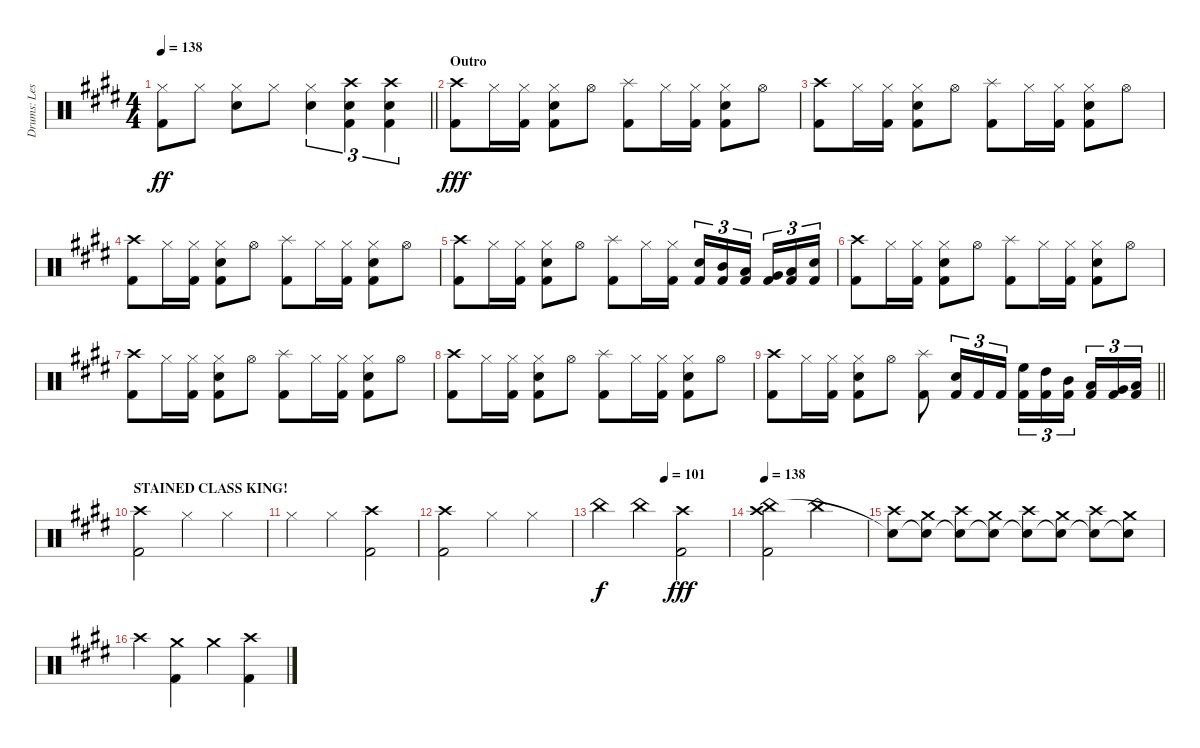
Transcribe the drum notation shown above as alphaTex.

\track ("Drums: Les" "Drums: Les") {instrument percussion}
\staff {score}
\articulation defaults
\ts (4 4)
\tempo 138
\clef neutral
\barLineRight lightlight
\ks e
("Hi-Hat (closed)" "Kick (hit) 2").8{dy ff} "Hi-Hat (closed)".8 ("Hi-Hat (closed)" "Snare (hit) 2").8 "Hi-Hat (closed)".8 ("Hi-Hat (closed)" "Snare (hit) 2").4{tu (3 2)} ("Crash high (hit)" "Snare (hit) 2" "Kick (hit) 2").4{tu (3 2)} ("Crash high (hit)" "Snare (hit) 2" "Kick (hit) 2").4{tu (3 2)} |
\section ("" "Outro")
("Crash high (hit)" "Kick (hit) 2").8{dy fff} "Hi-Hat (closed)".16 ("Hi-Hat (closed)" "Kick (hit) 2").16 ("Hi-Hat (closed)" "Snare (hit) 2" "Kick (hit) 2").8 "Hi-Hat (open)".8 ("Splash (hit)" "Kick (hit) 2").8 "Hi-Hat (closed)".16 ("Hi-Hat (closed)" "Kick (hit) 2").16 ("Hi-Hat (closed)" "Snare (hit) 2" "Kick (hit) 2").8 "Hi-Hat (open)".8 |
("Crash high (hit)" "Kick (hit) 2").8 "Hi-Hat (closed)".16 ("Hi-Hat (closed)" "Kick (hit) 2").16 ("Hi-Hat (closed)" "Snare (hit) 2" "Kick (hit) 2").8 "Hi-Hat (open)".8 ("Splash (hit)" "Kick (hit) 2").8 "Hi-Hat (closed)".16 ("Hi-Hat (closed)" "Kick (hit) 2").16 ("Hi-Hat (closed)" "Snare (hit) 2" "Kick (hit) 2").8 "Hi-Hat (open)".8 |
("Crash high (hit)" "Kick (hit) 2").8 "Hi-Hat (closed)".16 ("Hi-Hat (closed)" "Kick (hit) 2").16 ("Hi-Hat (closed)" "Snare (hit) 2" "Kick (hit) 2").8 "Hi-Hat (open)".8 ("Splash (hit)" "Kick (hit) 2").8 "Hi-Hat (closed)".16 ("Hi-Hat (closed)" "Kick (hit) 2").16 ("Hi-Hat (closed)" "Snare (hit) 2" "Kick (hit) 2").8 "Hi-Hat (open)".8 |
("Crash high (hit)" "Kick (hit) 2").8 "Hi-Hat (closed)".16 ("Hi-Hat (closed)" "Kick (hit) 2").16 ("Hi-Hat (closed)" "Snare (hit) 2" "Kick (hit) 2").8 "Hi-Hat (open)".8 ("Splash (hit)" "Kick (hit) 2").8 "Hi-Hat (closed)".16 ("Hi-Hat (closed)" "Kick (hit) 2").16 ("Snare (hit) 2" "Kick (hit) 2").16{tu (3 2)} ("Mid Tom (hit)" "Kick (hit) 2").16{tu (3 2)} ("Low Tom (hit)" "Kick (hit) 2").16{tu (3 2) beam splitsecondary} ("Very Low Tom (hit)" "Kick (hit) 2").16{tu (3 2)} ("Low Floor Tom (hit)" "Kick (hit) 2").16{tu (3 2)} ("Snare (hit) 2" "Kick (hit) 2").16{tu (3 2)} |
("Crash high (hit)" "Kick (hit) 2").8 "Hi-Hat (closed)".16 ("Hi-Hat (closed)" "Kick (hit) 2").16 ("Hi-Hat (closed)" "Snare (hit) 2" "Kick (hit) 2").8 "Hi-Hat (open)".8 ("Splash (hit)" "Kick (hit) 2").8 "Hi-Hat (closed)".16 ("Hi-Hat (closed)" "Kick (hit) 2").16 ("Hi-Hat (closed)" "Snare (hit) 2" "Kick (hit) 2").8 "Hi-Hat (open)".8 |
("Crash high (hit)" "Kick (hit) 2").8 "Hi-Hat (closed)".16 ("Hi-Hat (closed)" "Kick (hit) 2").16 ("Hi-Hat (closed)" "Snare (hit) 2" "Kick (hit) 2").8 "Hi-Hat (open)".8 ("Splash (hit)" "Kick (hit) 2").8 "Hi-Hat (closed)".16 ("Hi-Hat (closed)" "Kick (hit) 2").16 ("Hi-Hat (closed)" "Snare (hit) 2" "Kick (hit) 2").8 "Hi-Hat (open)".8 |
("Crash high (hit)" "Kick (hit) 2").8 "Hi-Hat (closed)".16 ("Hi-Hat (closed)" "Kick (hit) 2").16 ("Hi-Hat (closed)" "Snare (hit) 2" "Kick (hit) 2").8 "Hi-Hat (open)".8 ("Splash (hit)" "Kick (hit) 2").8 "Hi-Hat (closed)".16 ("Hi-Hat (closed)" "Kick (hit) 2").16 ("Hi-Hat (closed)" "Snare (hit) 2" "Kick (hit) 2").8 "Hi-Hat (open)".8 |
\barLineRight lightlight
("Crash high (hit)" "Kick (hit) 2").8 "Hi-Hat (closed)".16 ("Hi-Hat (closed)" "Kick (hit) 2").16 ("Hi-Hat (closed)" "Snare (hit) 2" "Kick (hit) 2").8 "Hi-Hat (open)".8 ("Splash (hit)" "Kick (hit) 2").8 ("Snare (hit) 2" "Kick (hit) 2").16{tu (3 2)} "Kick (hit) 2".16{tu (3 2)} "Kick (hit) 2".16{tu (3 2)} ("High Floor Tom (hit)" "Kick (hit) 2").16{tu (3 2)} ("High Tom (hit)" "Kick (hit) 2").16{tu (3 2)} ("Mid Tom (hit)" "Kick (hit) 2").16{tu (3 2) beam splitsecondary} ("Low Tom (hit)" "Kick (hit) 2").16{tu (3 2)} ("Very Low Tom (hit)" "Kick (hit) 2").16{tu (3 2)} ("Low Floor Tom (hit)" "Kick (hit) 2").16{tu (3 2)} |
\section ("" "STAINED CLASS KING!")
("Crash high (hit)" "Kick (hit) 2").2 "Hi-Hat (closed)".4 "Hi-Hat (closed)".4 |
"Hi-Hat (closed)".4 "Hi-Hat (closed)".4 ("Crash high (hit)" "Kick (hit) 2").2 |
("Crash high (hit)" "Kick (hit) 2").2 "Hi-Hat (closed)".4 "Hi-Hat (closed)".4 |
\tempo (101 0.5)
"China (hit)".4{dy f} "China (hit)".4 ("Crash high (hit)" "Kick (hit) 2").2{dy fff} |
\tempo 138
("Crash high (hit)" "China (hit)" "Kick (hit) 2").2 "China (hit)".2{volume 0} |
("Crash high (hit)" "Snare (hit)"{t}).8{volume 16} ("Crash medium (hit)" "Snare (hit)"{t}).8 ("Crash high (hit)" "Snare (hit)"{t}).8 ("Crash medium (hit)" "Snare (hit)"{t}).8 ("Crash high (hit)" "Snare (hit)"{t}).8 ("Crash medium (hit)" "Snare (hit)"{t}).8 ("Crash high (hit)" "Snare (hit)"{t}).8 ("Crash medium (hit)" "Snare (hit)"{t}).8 |
"Crash high (hit)".4 ("Crash medium (hit)" "Kick (hit) 2").4 "Crash medium (hit)".4 ("Crash high (hit)" "Kick (hit) 2").4
